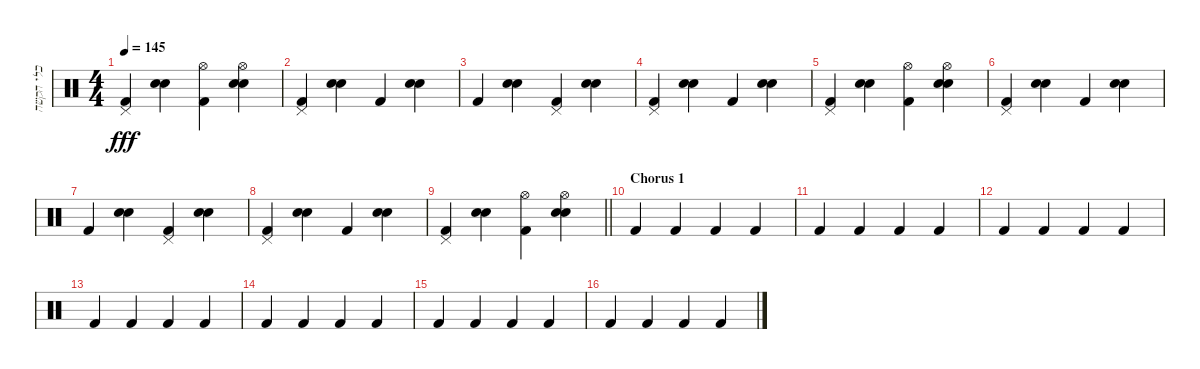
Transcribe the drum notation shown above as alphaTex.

\track ("כלי הקשה" "כלי הקשה") {instrument percussion bank 127}
\staff {score}
\articulation defaults
\ts (4 4)
\tempo 145
\clef neutral
\ks c
("Pedal Hi-Hat (hit)" "Kick (hit) 2").4{dy fff} ("Snare (hit) 2" "Snare (hit) 2").4 ("Hi-Hat (open)" "Kick (hit) 2").4 ("Hi-Hat (open)" "Snare (hit) 2" "Snare (hit) 2").4 |
("Pedal Hi-Hat (hit)" "Kick (hit) 2").4 ("Snare (hit) 2" "Snare (hit) 2").4 "Kick (hit) 2".4 ("Snare (hit) 2" "Snare (hit) 2").4 |
"Kick (hit) 2".4 ("Snare (hit) 2" "Snare (hit) 2").4 ("Pedal Hi-Hat (hit)" "Kick (hit) 2").4 ("Snare (hit) 2" "Snare (hit) 2").4 |
("Pedal Hi-Hat (hit)" "Kick (hit) 2").4 ("Snare (hit) 2" "Snare (hit) 2").4 "Kick (hit) 2".4 ("Snare (hit) 2" "Snare (hit) 2").4 |
("Pedal Hi-Hat (hit)" "Kick (hit) 2").4 ("Snare (hit) 2" "Snare (hit) 2").4 ("Hi-Hat (open)" "Kick (hit) 2").4 ("Hi-Hat (open)" "Snare (hit) 2" "Snare (hit) 2").4 |
("Pedal Hi-Hat (hit)" "Kick (hit) 2").4 ("Snare (hit) 2" "Snare (hit) 2").4 "Kick (hit) 2".4 ("Snare (hit) 2" "Snare (hit) 2").4 |
"Kick (hit) 2".4 ("Snare (hit) 2" "Snare (hit) 2").4 ("Pedal Hi-Hat (hit)" "Kick (hit) 2").4 ("Snare (hit) 2" "Snare (hit) 2").4 |
("Pedal Hi-Hat (hit)" "Kick (hit) 2").4 ("Snare (hit) 2" "Snare (hit) 2").4 "Kick (hit) 2".4 ("Snare (hit) 2" "Snare (hit) 2").4 |
\barLineRight lightlight
("Pedal Hi-Hat (hit)" "Kick (hit) 2").4 ("Snare (hit) 2" "Snare (hit) 2").4 ("Hi-Hat (open)" "Kick (hit) 2").4 ("Hi-Hat (open)" "Snare (hit) 2" "Snare (hit) 2").4 |
\section ("" "Chorus 1")
"Kick (hit) 2".4 "Kick (hit) 2".4 "Kick (hit) 2".4 "Kick (hit) 2".4 |
"Kick (hit) 2".4 "Kick (hit) 2".4 "Kick (hit) 2".4 "Kick (hit) 2".4 |
"Kick (hit) 2".4 "Kick (hit) 2".4 "Kick (hit) 2".4 "Kick (hit) 2".4 |
"Kick (hit) 2".4 "Kick (hit) 2".4 "Kick (hit) 2".4 "Kick (hit) 2".4 |
"Kick (hit) 2".4 "Kick (hit) 2".4 "Kick (hit) 2".4 "Kick (hit) 2".4 |
"Kick (hit) 2".4 "Kick (hit) 2".4 "Kick (hit) 2".4 "Kick (hit) 2".4 |
"Kick (hit) 2".4 "Kick (hit) 2".4 "Kick (hit) 2".4 "Kick (hit) 2".4
